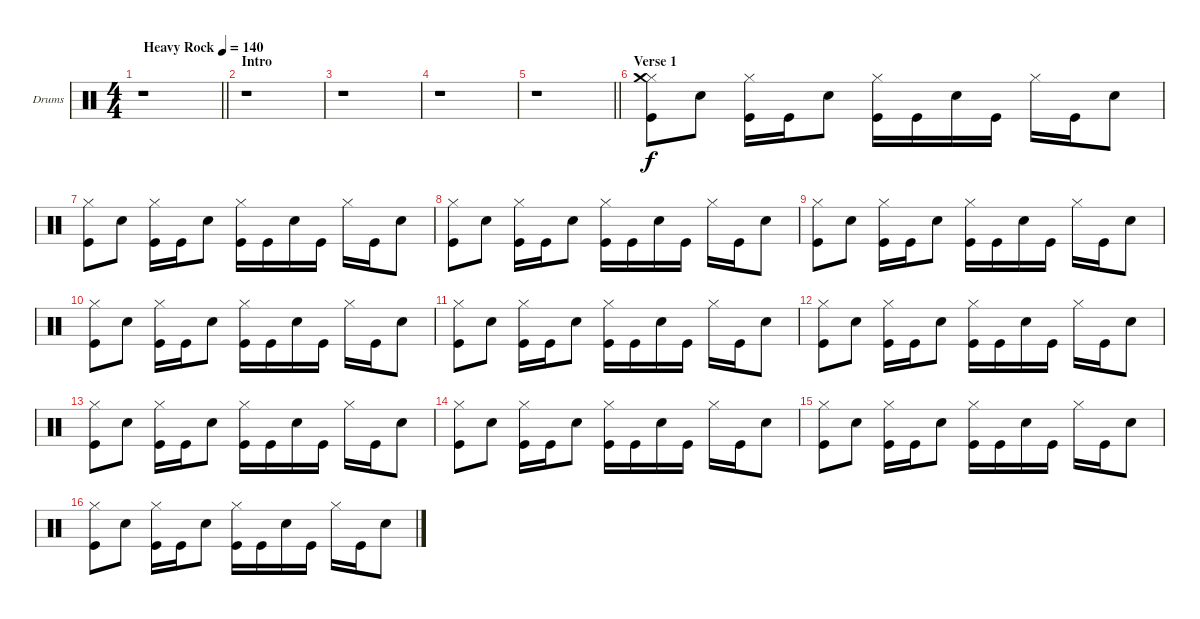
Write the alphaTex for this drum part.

\bracketExtendMode groupsimilarinstruments
\firstSystemTrackNameOrientation horizontal
\otherSystemsTrackNameOrientation horizontal
\track ("Drumkit" "Drums") {instrument percussion}
\staff {score}
\articulation defaults
\ts (4 4)
\beaming (8 2 2 2 2)
\tempo (140 "Heavy Rock")
\clef neutral
\barLineRight lightlight
\ks c
r.1{dy f} |
\section ("" "Intro")
r.1 |
r.1 |
r.1 |
\barLineRight lightlight
r.1 |
\section ("" "Verse 1")
("Hi-Hat (closed)" "Kick (hit)" "Crash medium (hit)").8 "Snare (hit) 2".8 ("Hi-Hat (closed)" "Kick (hit)").16 "Kick (hit)".16 "Snare (hit) 2".8 ("Hi-Hat (closed)" "Kick (hit)").16 "Kick (hit)".16 "Snare (hit) 2".16 "Kick (hit)".16 "Hi-Hat (closed)".16 "Kick (hit)".16 "Snare (hit) 2".8 |
("Hi-Hat (closed)" "Kick (hit)").8 "Snare (hit) 2".8 ("Hi-Hat (closed)" "Kick (hit)").16 "Kick (hit)".16 "Snare (hit) 2".8 ("Hi-Hat (closed)" "Kick (hit)").16 "Kick (hit)".16 "Snare (hit) 2".16 "Kick (hit)".16 "Hi-Hat (closed)".16 "Kick (hit)".16 "Snare (hit) 2".8 |
("Hi-Hat (closed)" "Kick (hit)").8 "Snare (hit) 2".8 ("Hi-Hat (closed)" "Kick (hit)").16 "Kick (hit)".16 "Snare (hit) 2".8 ("Hi-Hat (closed)" "Kick (hit)").16 "Kick (hit)".16 "Snare (hit) 2".16 "Kick (hit)".16 "Hi-Hat (closed)".16 "Kick (hit)".16 "Snare (hit) 2".8 |
("Hi-Hat (closed)" "Kick (hit)").8 "Snare (hit) 2".8 ("Hi-Hat (closed)" "Kick (hit)").16 "Kick (hit)".16 "Snare (hit) 2".8 ("Hi-Hat (closed)" "Kick (hit)").16 "Kick (hit)".16 "Snare (hit) 2".16 "Kick (hit)".16 "Hi-Hat (closed)".16 "Kick (hit)".16 "Snare (hit) 2".8 |
("Hi-Hat (closed)" "Kick (hit)").8 "Snare (hit) 2".8 ("Hi-Hat (closed)" "Kick (hit)").16 "Kick (hit)".16 "Snare (hit) 2".8 ("Hi-Hat (closed)" "Kick (hit)").16 "Kick (hit)".16 "Snare (hit) 2".16 "Kick (hit)".16 "Hi-Hat (closed)".16 "Kick (hit)".16 "Snare (hit) 2".8 |
("Hi-Hat (closed)" "Kick (hit)").8 "Snare (hit) 2".8 ("Hi-Hat (closed)" "Kick (hit)").16 "Kick (hit)".16 "Snare (hit) 2".8 ("Hi-Hat (closed)" "Kick (hit)").16 "Kick (hit)".16 "Snare (hit) 2".16 "Kick (hit)".16 "Hi-Hat (closed)".16 "Kick (hit)".16 "Snare (hit) 2".8 |
("Hi-Hat (closed)" "Kick (hit)").8 "Snare (hit) 2".8 ("Hi-Hat (closed)" "Kick (hit)").16 "Kick (hit)".16 "Snare (hit) 2".8 ("Hi-Hat (closed)" "Kick (hit)").16 "Kick (hit)".16 "Snare (hit) 2".16 "Kick (hit)".16 "Hi-Hat (closed)".16 "Kick (hit)".16 "Snare (hit) 2".8 |
("Hi-Hat (closed)" "Kick (hit)").8 "Snare (hit) 2".8 ("Hi-Hat (closed)" "Kick (hit)").16 "Kick (hit)".16 "Snare (hit) 2".8 ("Hi-Hat (closed)" "Kick (hit)").16 "Kick (hit)".16 "Snare (hit) 2".16 "Kick (hit)".16 "Hi-Hat (closed)".16 "Kick (hit)".16 "Snare (hit) 2".8 |
("Hi-Hat (closed)" "Kick (hit)").8 "Snare (hit) 2".8 ("Hi-Hat (closed)" "Kick (hit)").16 "Kick (hit)".16 "Snare (hit) 2".8 ("Hi-Hat (closed)" "Kick (hit)").16 "Kick (hit)".16 "Snare (hit) 2".16 "Kick (hit)".16 "Hi-Hat (closed)".16 "Kick (hit)".16 "Snare (hit) 2".8 |
("Hi-Hat (closed)" "Kick (hit)").8 "Snare (hit) 2".8 ("Hi-Hat (closed)" "Kick (hit)").16 "Kick (hit)".16 "Snare (hit) 2".8 ("Hi-Hat (closed)" "Kick (hit)").16 "Kick (hit)".16 "Snare (hit) 2".16 "Kick (hit)".16 "Hi-Hat (closed)".16 "Kick (hit)".16 "Snare (hit) 2".8 |
("Hi-Hat (closed)" "Kick (hit)").8 "Snare (hit) 2".8 ("Hi-Hat (closed)" "Kick (hit)").16 "Kick (hit)".16 "Snare (hit) 2".8 ("Hi-Hat (closed)" "Kick (hit)").16 "Kick (hit)".16 "Snare (hit) 2".16 "Kick (hit)".16 "Hi-Hat (closed)".16 "Kick (hit)".16 "Snare (hit) 2".8
